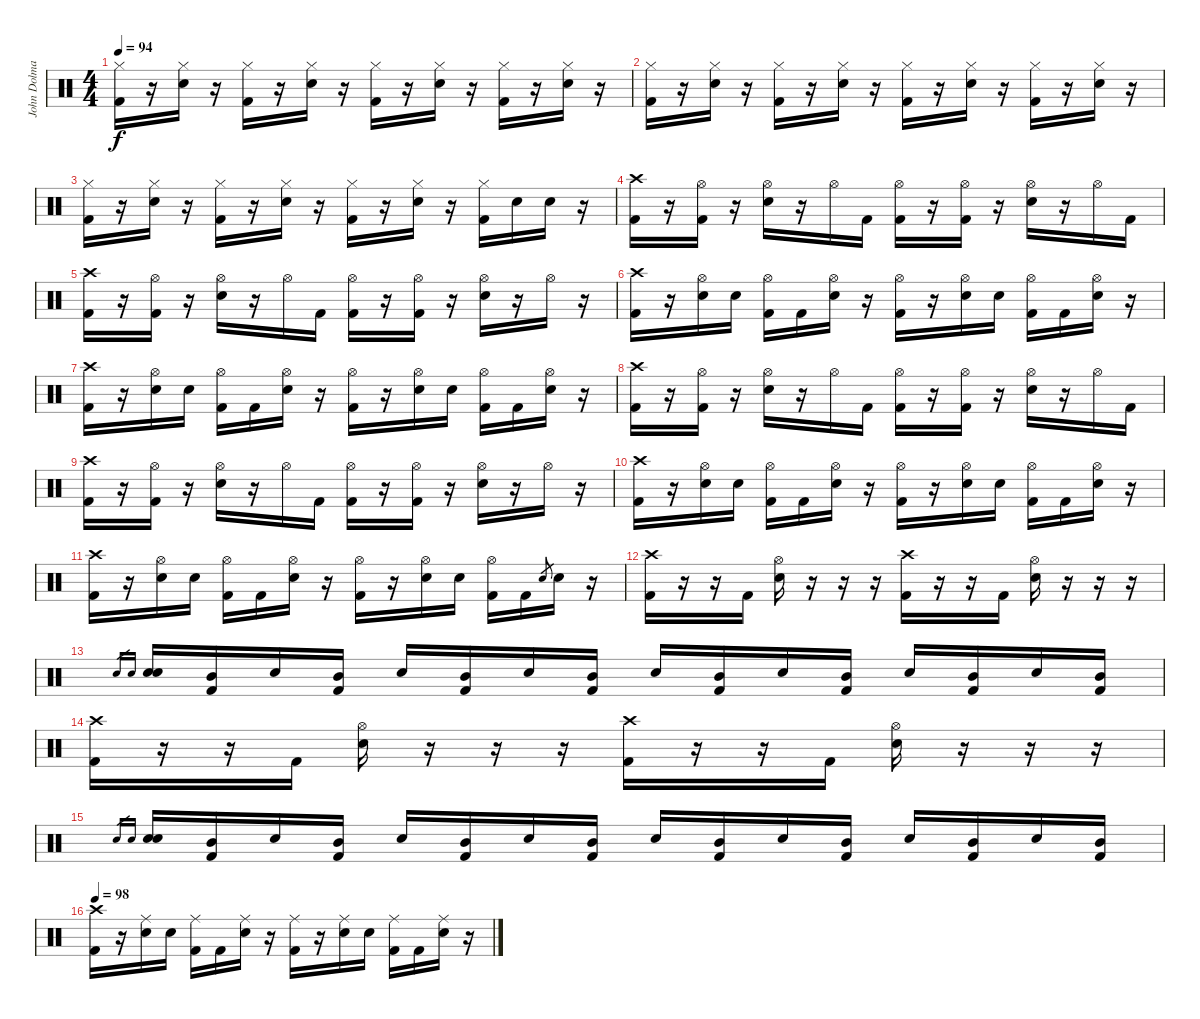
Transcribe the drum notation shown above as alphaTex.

\track ("John Dolmayan" "John Dolma") {instrument percussion}
\staff {score}
\articulation defaults
\ts (4 4)
\tempo 94
\clef neutral
\ks c
("Hi-Hat (closed)" "Kick (hit) 2").16{dy f} r.16 ("Hi-Hat (closed)" "Electric Snare (hit)").16 r.16 ("Hi-Hat (closed)" "Kick (hit) 2").16 r.16 ("Hi-Hat (closed)" "Electric Snare (hit)").16 r.16 ("Hi-Hat (closed)" "Kick (hit) 2").16 r.16 ("Hi-Hat (closed)" "Electric Snare (hit)").16 r.16 ("Hi-Hat (closed)" "Kick (hit) 2").16 r.16 ("Hi-Hat (closed)" "Electric Snare (hit)").16 r.16 |
("Hi-Hat (closed)" "Kick (hit) 2").16 r.16 ("Hi-Hat (closed)" "Electric Snare (hit)").16 r.16 ("Hi-Hat (closed)" "Kick (hit) 2").16 r.16 ("Hi-Hat (closed)" "Electric Snare (hit)").16 r.16 ("Hi-Hat (closed)" "Kick (hit) 2").16 r.16 ("Hi-Hat (closed)" "Electric Snare (hit)").16 r.16 ("Hi-Hat (closed)" "Kick (hit) 2").16 r.16 ("Hi-Hat (closed)" "Electric Snare (hit)").16 r.16 |
("Hi-Hat (closed)" "Kick (hit) 2").16 r.16 ("Hi-Hat (closed)" "Electric Snare (hit)").16 r.16 ("Hi-Hat (closed)" "Kick (hit) 2").16 r.16 ("Hi-Hat (closed)" "Electric Snare (hit)").16 r.16 ("Hi-Hat (closed)" "Kick (hit) 2").16 r.16 ("Hi-Hat (closed)" "Electric Snare (hit)").16 r.16 ("Hi-Hat (closed)" "Kick (hit) 2").16 "Electric Snare (hit)".16 "Electric Snare (hit)".16 r.16 |
("Crash high (hit)" "Kick (hit) 2").16 r.16 ("Hi-Hat (open)" "Kick (hit) 2").16 r.16 ("Hi-Hat (open)" "Electric Snare (hit)").16 r.16 "Hi-Hat (open)".16 "Kick (hit) 2".16 ("Hi-Hat (open)" "Kick (hit) 2").16 r.16 ("Hi-Hat (open)" "Kick (hit) 2").16 r.16 ("Hi-Hat (open)" "Electric Snare (hit)").16 r.16 "Hi-Hat (open)".16 "Kick (hit) 2".16 |
("Crash high (hit)" "Kick (hit) 2").16 r.16 ("Hi-Hat (open)" "Kick (hit) 2").16 r.16 ("Hi-Hat (open)" "Electric Snare (hit)").16 r.16 "Hi-Hat (open)".16 "Kick (hit) 2".16 ("Hi-Hat (open)" "Kick (hit) 2").16 r.16 ("Hi-Hat (open)" "Kick (hit) 2").16 r.16 ("Hi-Hat (open)" "Electric Snare (hit)").16 r.16 "Hi-Hat (open)".16 r.16 |
("Crash high (hit)" "Kick (hit) 2").16 r.16 ("Hi-Hat (open)" "Electric Snare (hit)").16 "Electric Snare (hit)".16 ("Hi-Hat (open)" "Kick (hit) 2").16 "Kick (hit) 2".16 ("Hi-Hat (open)" "Electric Snare (hit)").16 r.16 ("Hi-Hat (open)" "Kick (hit) 2").16 r.16 ("Hi-Hat (open)" "Electric Snare (hit)").16 "Electric Snare (hit)".16 ("Hi-Hat (open)" "Kick (hit) 2").16 "Kick (hit) 2".16 ("Hi-Hat (open)" "Electric Snare (hit)").16 r.16 |
("Crash high (hit)" "Kick (hit) 2").16 r.16 ("Hi-Hat (open)" "Electric Snare (hit)").16 "Electric Snare (hit)".16 ("Hi-Hat (open)" "Kick (hit) 2").16 "Kick (hit) 2".16 ("Hi-Hat (open)" "Electric Snare (hit)").16 r.16 ("Hi-Hat (open)" "Kick (hit) 2").16 r.16 ("Hi-Hat (open)" "Electric Snare (hit)").16 "Electric Snare (hit)".16 ("Hi-Hat (open)" "Kick (hit) 2").16 "Kick (hit) 2".16 ("Hi-Hat (open)" "Electric Snare (hit)").16 r.16 |
("Crash high (hit)" "Kick (hit) 2").16 r.16 ("Hi-Hat (open)" "Kick (hit) 2").16 r.16 ("Hi-Hat (open)" "Electric Snare (hit)").16 r.16 "Hi-Hat (open)".16 "Kick (hit) 2".16 ("Hi-Hat (open)" "Kick (hit) 2").16 r.16 ("Hi-Hat (open)" "Kick (hit) 2").16 r.16 ("Hi-Hat (open)" "Electric Snare (hit)").16 r.16 "Hi-Hat (open)".16 "Kick (hit) 2".16 |
("Crash high (hit)" "Kick (hit) 2").16 r.16 ("Hi-Hat (open)" "Kick (hit) 2").16 r.16 ("Hi-Hat (open)" "Electric Snare (hit)").16 r.16 "Hi-Hat (open)".16 "Kick (hit) 2".16 ("Hi-Hat (open)" "Kick (hit) 2").16 r.16 ("Hi-Hat (open)" "Kick (hit) 2").16 r.16 ("Hi-Hat (open)" "Electric Snare (hit)").16 r.16 "Hi-Hat (open)".16 r.16 |
("Crash high (hit)" "Kick (hit) 2").16 r.16 ("Hi-Hat (open)" "Electric Snare (hit)").16 "Electric Snare (hit)".16 ("Hi-Hat (open)" "Kick (hit) 2").16 "Kick (hit) 2".16 ("Hi-Hat (open)" "Electric Snare (hit)").16 r.16 ("Hi-Hat (open)" "Kick (hit) 2").16 r.16 ("Hi-Hat (open)" "Electric Snare (hit)").16 "Electric Snare (hit)".16 ("Hi-Hat (open)" "Kick (hit) 2").16 "Kick (hit) 2".16 ("Hi-Hat (open)" "Electric Snare (hit)").16 r.16 |
("Crash high (hit)" "Kick (hit) 2").16 r.16 ("Hi-Hat (open)" "Electric Snare (hit)").16 "Electric Snare (hit)".16 ("Hi-Hat (open)" "Kick (hit) 2").16 "Kick (hit) 2".16 ("Hi-Hat (open)" "Electric Snare (hit)").16 r.16 ("Hi-Hat (open)" "Kick (hit) 2").16 r.16 ("Hi-Hat (open)" "Electric Snare (hit)").16 "Electric Snare (hit)".16 ("Hi-Hat (open)" "Kick (hit) 2").16 "Kick (hit) 2".16 "Electric Snare (hit)".8{gr} "Electric Snare (hit)".16 r.16 |
("Crash high (hit)" "Kick (hit) 2").16 r.16 r.16 "Kick (hit) 2".16 ("Hi-Hat (open)" "Electric Snare (hit)").16 r.16 r.16 r.16 ("Crash high (hit)" "Kick (hit) 2").16 r.16 r.16 "Kick (hit) 2".16 ("Hi-Hat (open)" "Electric Snare (hit)").16 r.16 r.16 r.16 |
"Electric Snare (hit)".16{gr} "Electric Snare (hit)".16{gr} ("Electric Snare (hit)" "Electric Snare (hit)").16 ("Mid Tom (hit)" "Kick (hit) 2").16 "Electric Snare (hit)".16 ("Mid Tom (hit)" "Kick (hit) 2").16 "Electric Snare (hit)".16 ("Mid Tom (hit)" "Kick (hit) 2").16 "Electric Snare (hit)".16 ("Mid Tom (hit)" "Kick (hit) 2").16 "Electric Snare (hit)".16 ("Mid Tom (hit)" "Kick (hit) 2").16 "Electric Snare (hit)".16 ("Mid Tom (hit)" "Kick (hit) 2").16 "Electric Snare (hit)".16 ("Mid Tom (hit)" "Kick (hit) 2").16 "Electric Snare (hit)".16 ("Mid Tom (hit)" "Kick (hit) 2").16 |
("Crash high (hit)" "Kick (hit) 2").16 r.16 r.16 "Kick (hit) 2".16 ("Hi-Hat (open)" "Electric Snare (hit)").16 r.16 r.16 r.16 ("Crash high (hit)" "Kick (hit) 2").16 r.16 r.16 "Kick (hit) 2".16 ("Hi-Hat (open)" "Electric Snare (hit)").16 r.16 r.16 r.16 |
"Electric Snare (hit)".16{gr} "Electric Snare (hit)".16{gr} ("Electric Snare (hit)" "Electric Snare (hit)").16 ("Mid Tom (hit)" "Kick (hit) 2").16 "Electric Snare (hit)".16 ("Mid Tom (hit)" "Kick (hit) 2").16 "Electric Snare (hit)".16 ("Mid Tom (hit)" "Kick (hit) 2").16 "Electric Snare (hit)".16 ("Mid Tom (hit)" "Kick (hit) 2").16 "Electric Snare (hit)".16 ("Mid Tom (hit)" "Kick (hit) 2").16 "Electric Snare (hit)".16 ("Mid Tom (hit)" "Kick (hit) 2").16 "Electric Snare (hit)".16 ("Mid Tom (hit)" "Kick (hit) 2").16 "Electric Snare (hit)".16 ("Mid Tom (hit)" "Kick (hit) 2").16 |
\tempo 98
("Crash high (hit)" "Kick (hit) 2").16 r.16 ("Ride (middle)" "Electric Snare (hit)").16 "Electric Snare (hit)".16 ("Ride (middle)" "Kick (hit) 2").16 "Kick (hit) 2".16 ("Ride (middle)" "Electric Snare (hit)").16 r.16 ("Ride (middle)" "Kick (hit) 2").16 r.16 ("Ride (middle)" "Electric Snare (hit)").16 "Electric Snare (hit)".16 ("Ride (middle)" "Kick (hit) 2").16 "Kick (hit) 2".16 ("Ride (middle)" "Electric Snare (hit)").16 r.16
